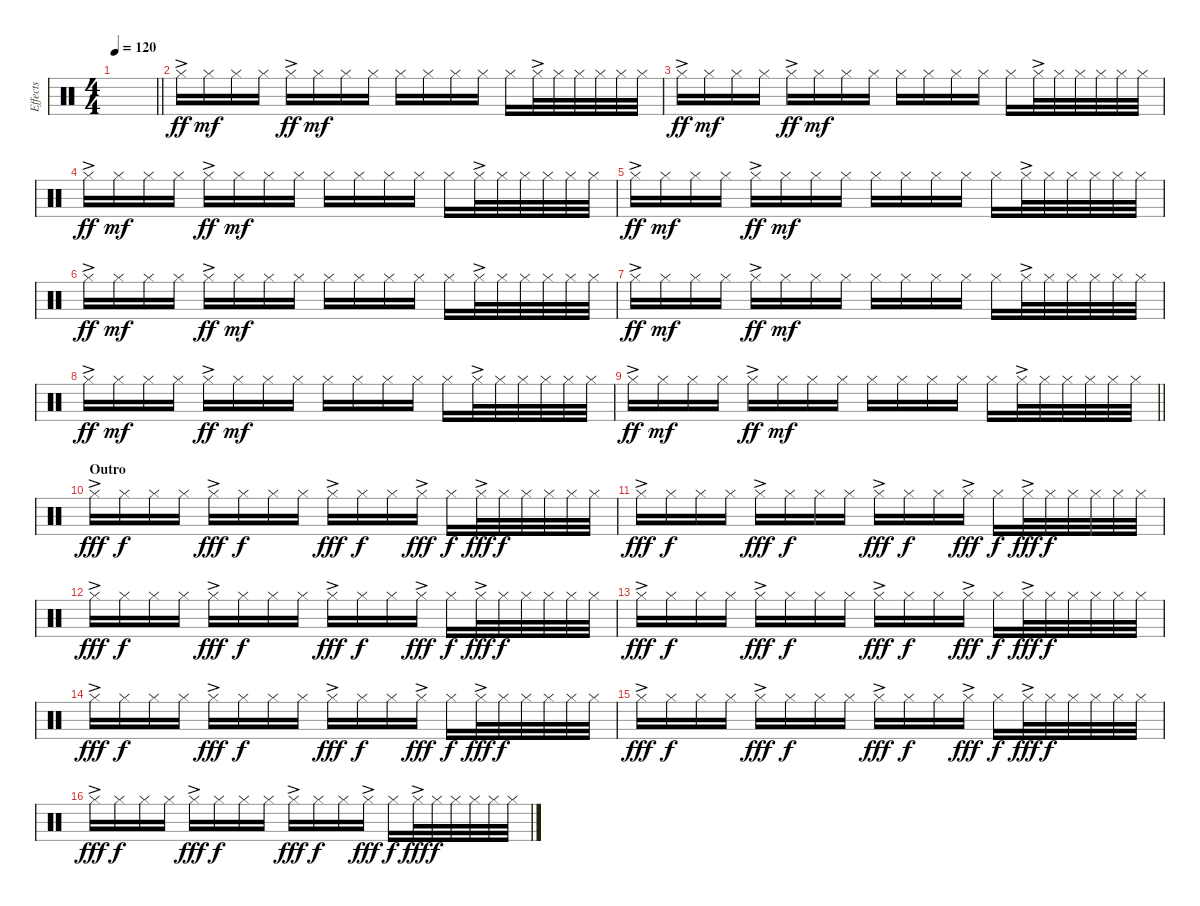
\track ("Effects" "Effects") {instrument percussion}
\staff {score}
\articulation defaults
\ts (4 4)
\tempo 120
\clef neutral
\barLineRight lightlight
\ks c
|
"Hi-Hat (closed)"{ac}.16{dy ff} "Hi-Hat (closed)".16{dy mf} "Hi-Hat (closed)".16 "Hi-Hat (closed)".16 "Hi-Hat (closed)"{ac}.16{dy ff} "Hi-Hat (closed)".16{dy mf} "Hi-Hat (closed)".16 "Hi-Hat (closed)".16 "Hi-Hat (closed)".16 "Hi-Hat (closed)".16 "Hi-Hat (closed)".16 "Hi-Hat (closed)".16 "Hi-Hat (closed)".16 "Hi-Hat (closed)"{ac}.32 "Hi-Hat (closed)".32 "Hi-Hat (closed)".32 "Hi-Hat (closed)".32 "Hi-Hat (closed)".32 "Hi-Hat (closed)".32 |
"Hi-Hat (closed)"{ac}.16{dy ff} "Hi-Hat (closed)".16{dy mf} "Hi-Hat (closed)".16 "Hi-Hat (closed)".16 "Hi-Hat (closed)"{ac}.16{dy ff} "Hi-Hat (closed)".16{dy mf} "Hi-Hat (closed)".16 "Hi-Hat (closed)".16 "Hi-Hat (closed)".16 "Hi-Hat (closed)".16 "Hi-Hat (closed)".16 "Hi-Hat (closed)".16 "Hi-Hat (closed)".16 "Hi-Hat (closed)"{ac}.32 "Hi-Hat (closed)".32 "Hi-Hat (closed)".32 "Hi-Hat (closed)".32 "Hi-Hat (closed)".32 "Hi-Hat (closed)".32 |
"Hi-Hat (closed)"{ac}.16{dy ff} "Hi-Hat (closed)".16{dy mf} "Hi-Hat (closed)".16 "Hi-Hat (closed)".16 "Hi-Hat (closed)"{ac}.16{dy ff} "Hi-Hat (closed)".16{dy mf} "Hi-Hat (closed)".16 "Hi-Hat (closed)".16 "Hi-Hat (closed)".16 "Hi-Hat (closed)".16 "Hi-Hat (closed)".16 "Hi-Hat (closed)".16 "Hi-Hat (closed)".16 "Hi-Hat (closed)"{ac}.32 "Hi-Hat (closed)".32 "Hi-Hat (closed)".32 "Hi-Hat (closed)".32 "Hi-Hat (closed)".32 "Hi-Hat (closed)".32 |
"Hi-Hat (closed)"{ac}.16{dy ff} "Hi-Hat (closed)".16{dy mf} "Hi-Hat (closed)".16 "Hi-Hat (closed)".16 "Hi-Hat (closed)"{ac}.16{dy ff} "Hi-Hat (closed)".16{dy mf} "Hi-Hat (closed)".16 "Hi-Hat (closed)".16 "Hi-Hat (closed)".16 "Hi-Hat (closed)".16 "Hi-Hat (closed)".16 "Hi-Hat (closed)".16 "Hi-Hat (closed)".16 "Hi-Hat (closed)"{ac}.32 "Hi-Hat (closed)".32 "Hi-Hat (closed)".32 "Hi-Hat (closed)".32 "Hi-Hat (closed)".32 "Hi-Hat (closed)".32 |
"Hi-Hat (closed)"{ac}.16{dy ff} "Hi-Hat (closed)".16{dy mf} "Hi-Hat (closed)".16 "Hi-Hat (closed)".16 "Hi-Hat (closed)"{ac}.16{dy ff} "Hi-Hat (closed)".16{dy mf} "Hi-Hat (closed)".16 "Hi-Hat (closed)".16 "Hi-Hat (closed)".16 "Hi-Hat (closed)".16 "Hi-Hat (closed)".16 "Hi-Hat (closed)".16 "Hi-Hat (closed)".16 "Hi-Hat (closed)"{ac}.32 "Hi-Hat (closed)".32 "Hi-Hat (closed)".32 "Hi-Hat (closed)".32 "Hi-Hat (closed)".32 "Hi-Hat (closed)".32 |
"Hi-Hat (closed)"{ac}.16{dy ff} "Hi-Hat (closed)".16{dy mf} "Hi-Hat (closed)".16 "Hi-Hat (closed)".16 "Hi-Hat (closed)"{ac}.16{dy ff} "Hi-Hat (closed)".16{dy mf} "Hi-Hat (closed)".16 "Hi-Hat (closed)".16 "Hi-Hat (closed)".16 "Hi-Hat (closed)".16 "Hi-Hat (closed)".16 "Hi-Hat (closed)".16 "Hi-Hat (closed)".16 "Hi-Hat (closed)"{ac}.32 "Hi-Hat (closed)".32 "Hi-Hat (closed)".32 "Hi-Hat (closed)".32 "Hi-Hat (closed)".32 "Hi-Hat (closed)".32 |
"Hi-Hat (closed)"{ac}.16{dy ff} "Hi-Hat (closed)".16{dy mf} "Hi-Hat (closed)".16 "Hi-Hat (closed)".16 "Hi-Hat (closed)"{ac}.16{dy ff} "Hi-Hat (closed)".16{dy mf} "Hi-Hat (closed)".16 "Hi-Hat (closed)".16 "Hi-Hat (closed)".16 "Hi-Hat (closed)".16 "Hi-Hat (closed)".16 "Hi-Hat (closed)".16 "Hi-Hat (closed)".16 "Hi-Hat (closed)"{ac}.32 "Hi-Hat (closed)".32 "Hi-Hat (closed)".32 "Hi-Hat (closed)".32 "Hi-Hat (closed)".32 "Hi-Hat (closed)".32 |
\barLineRight lightlight "Hi-Hat (closed)"{ac}.16{dy ff} "Hi-Hat (closed)".16{dy mf} "Hi-Hat (closed)".16 "Hi-Hat (closed)".16 "Hi-Hat (closed)"{ac}.16{dy ff} "Hi-Hat (closed)".16{dy mf} "Hi-Hat (closed)".16 "Hi-Hat (closed)".16 "Hi-Hat (closed)".16 "Hi-Hat (closed)".16 "Hi-Hat (closed)".16 "Hi-Hat (closed)".16 "Hi-Hat (closed)".16 "Hi-Hat (closed)"{ac}.32 "Hi-Hat (closed)".32 "Hi-Hat (closed)".32 "Hi-Hat (closed)".32 "Hi-Hat (closed)".32 "Hi-Hat (closed)".32
|
\section ("" "Outro")
"Hi-Hat (closed)"{ac}.16{dy fff} "Hi-Hat (closed)".16{dy f} "Hi-Hat (closed)".16 "Hi-Hat (closed)".16 "Hi-Hat (closed)"{ac}.16{dy fff} "Hi-Hat (closed)".16{dy f} "Hi-Hat (closed)".16 "Hi-Hat (closed)".16 "Hi-Hat (closed)"{ac}.16{dy fff} "Hi-Hat (closed)".16{dy f} "Hi-Hat (closed)".16 "Hi-Hat (closed)"{ac}.16{dy fff} "Hi-Hat (closed)".16{dy f} "Hi-Hat (closed)"{ac}.32{dy fff} "Hi-Hat (closed)".32{dy f} "Hi-Hat (closed)".32 "Hi-Hat (closed)".32 "Hi-Hat (closed)".32 "Hi-Hat (closed)".32 |
"Hi-Hat (closed)"{ac}.16{dy fff} "Hi-Hat (closed)".16{dy f} "Hi-Hat (closed)".16 "Hi-Hat (closed)".16 "Hi-Hat (closed)"{ac}.16{dy fff} "Hi-Hat (closed)".16{dy f} "Hi-Hat (closed)".16 "Hi-Hat (closed)".16 "Hi-Hat (closed)"{ac}.16{dy fff} "Hi-Hat (closed)".16{dy f} "Hi-Hat (closed)".16 "Hi-Hat (closed)"{ac}.16{dy fff} "Hi-Hat (closed)".16{dy f} "Hi-Hat (closed)"{ac}.32{dy fff} "Hi-Hat (closed)".32{dy f} "Hi-Hat (closed)".32 "Hi-Hat (closed)".32 "Hi-Hat (closed)".32 "Hi-Hat (closed)".32 |
"Hi-Hat (closed)"{ac}.16{dy fff} "Hi-Hat (closed)".16{dy f} "Hi-Hat (closed)".16 "Hi-Hat (closed)".16 "Hi-Hat (closed)"{ac}.16{dy fff} "Hi-Hat (closed)".16{dy f} "Hi-Hat (closed)".16 "Hi-Hat (closed)".16 "Hi-Hat (closed)"{ac}.16{dy fff} "Hi-Hat (closed)".16{dy f} "Hi-Hat (closed)".16 "Hi-Hat (closed)"{ac}.16{dy fff} "Hi-Hat (closed)".16{dy f} "Hi-Hat (closed)"{ac}.32{dy fff} "Hi-Hat (closed)".32{dy f} "Hi-Hat (closed)".32 "Hi-Hat (closed)".32 "Hi-Hat (closed)".32 "Hi-Hat (closed)".32 |
"Hi-Hat (closed)"{ac}.16{dy fff} "Hi-Hat (closed)".16{dy f} "Hi-Hat (closed)".16 "Hi-Hat (closed)".16 "Hi-Hat (closed)"{ac}.16{dy fff} "Hi-Hat (closed)".16{dy f} "Hi-Hat (closed)".16 "Hi-Hat (closed)".16 "Hi-Hat (closed)"{ac}.16{dy fff} "Hi-Hat (closed)".16{dy f} "Hi-Hat (closed)".16 "Hi-Hat (closed)"{ac}.16{dy fff} "Hi-Hat (closed)".16{dy f} "Hi-Hat (closed)"{ac}.32{dy fff} "Hi-Hat (closed)".32{dy f} "Hi-Hat (closed)".32 "Hi-Hat (closed)".32 "Hi-Hat (closed)".32 "Hi-Hat (closed)".32 |
"Hi-Hat (closed)"{ac}.16{dy fff} "Hi-Hat (closed)".16{dy f} "Hi-Hat (closed)".16 "Hi-Hat (closed)".16 "Hi-Hat (closed)"{ac}.16{dy fff} "Hi-Hat (closed)".16{dy f} "Hi-Hat (closed)".16 "Hi-Hat (closed)".16 "Hi-Hat (closed)"{ac}.16{dy fff} "Hi-Hat (closed)".16{dy f} "Hi-Hat (closed)".16 "Hi-Hat (closed)"{ac}.16{dy fff} "Hi-Hat (closed)".16{dy f} "Hi-Hat (closed)"{ac}.32{dy fff} "Hi-Hat (closed)".32{dy f} "Hi-Hat (closed)".32 "Hi-Hat (closed)".32 "Hi-Hat (closed)".32 "Hi-Hat (closed)".32 |
"Hi-Hat (closed)"{ac}.16{dy fff} "Hi-Hat (closed)".16{dy f} "Hi-Hat (closed)".16 "Hi-Hat (closed)".16 "Hi-Hat (closed)"{ac}.16{dy fff} "Hi-Hat (closed)".16{dy f} "Hi-Hat (closed)".16 "Hi-Hat (closed)".16 "Hi-Hat (closed)"{ac}.16{dy fff} "Hi-Hat (closed)".16{dy f} "Hi-Hat (closed)".16 "Hi-Hat (closed)"{ac}.16{dy fff} "Hi-Hat (closed)".16{dy f} "Hi-Hat (closed)"{ac}.32{dy fff} "Hi-Hat (closed)".32{dy f} "Hi-Hat (closed)".32 "Hi-Hat (closed)".32 "Hi-Hat (closed)".32 "Hi-Hat (closed)".32 |
"Hi-Hat (closed)"{ac}.16{dy fff} "Hi-Hat (closed)".16{dy f} "Hi-Hat (closed)".16 "Hi-Hat (closed)".16 "Hi-Hat (closed)"{ac}.16{dy fff} "Hi-Hat (closed)".16{dy f} "Hi-Hat (closed)".16 "Hi-Hat (closed)".16 "Hi-Hat (closed)"{ac}.16{dy fff} "Hi-Hat (closed)".16{dy f} "Hi-Hat (closed)".16 "Hi-Hat (closed)"{ac}.16{dy fff} "Hi-Hat (closed)".16{dy f} "Hi-Hat (closed)"{ac}.32{dy fff} "Hi-Hat (closed)".32{dy f} "Hi-Hat (closed)".32 "Hi-Hat (closed)".32 "Hi-Hat (closed)".32 "Hi-Hat (closed)".32
